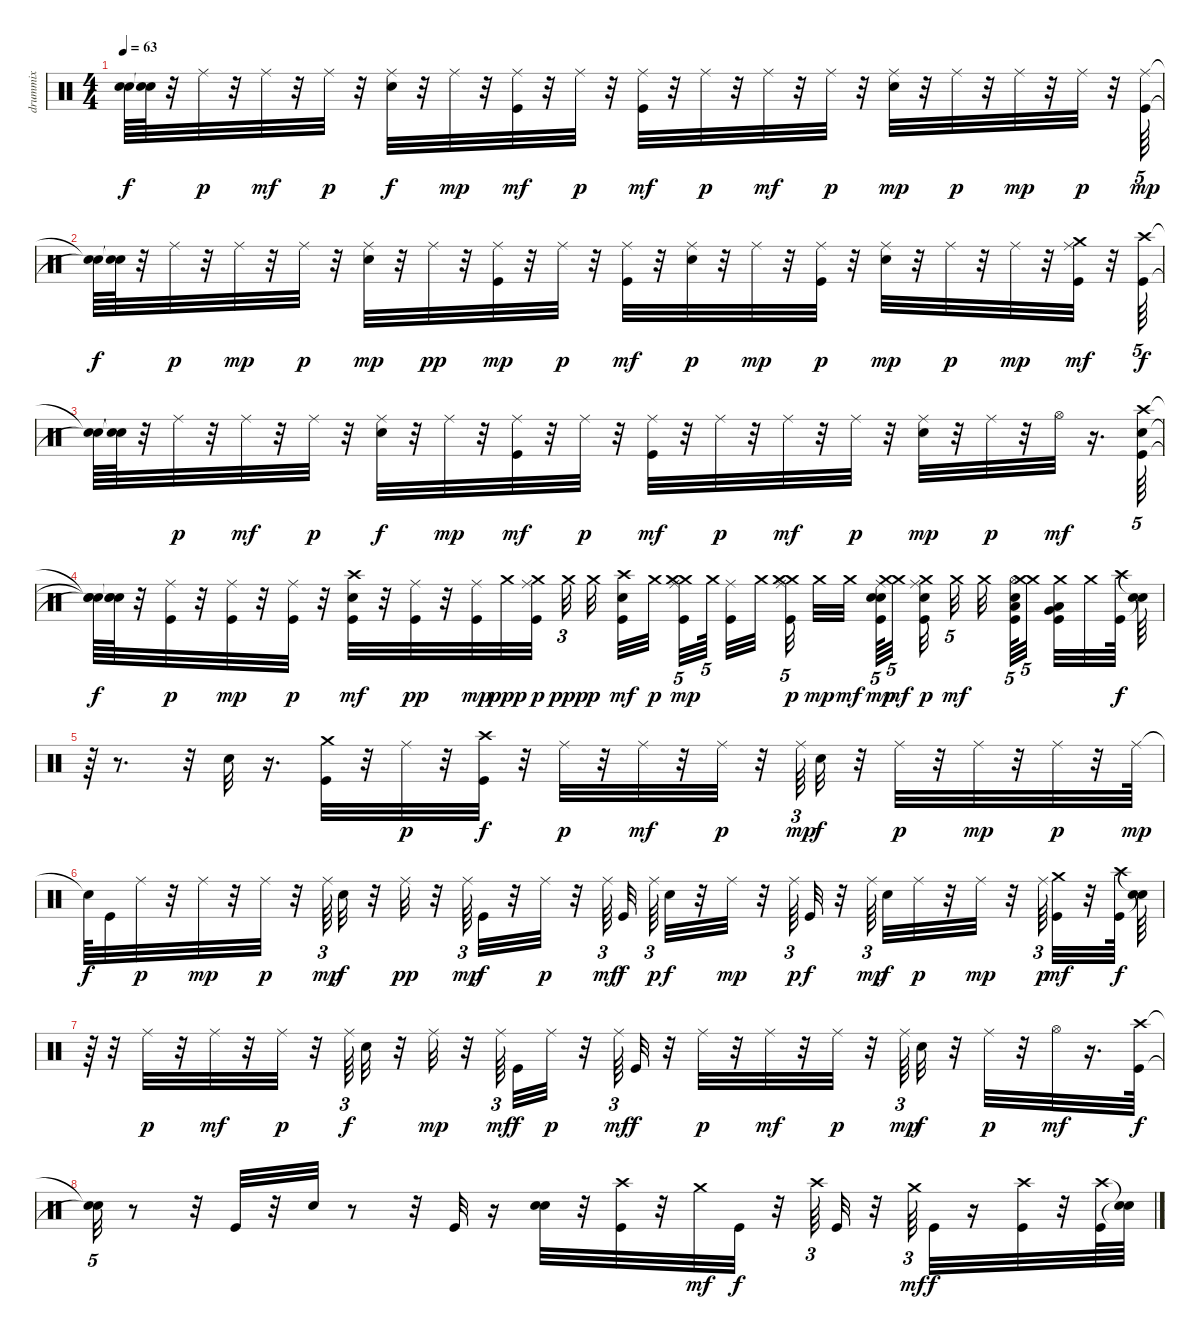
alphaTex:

\track ("drummix" "drummix") {instrument percussion}
\staff {score}
\articulation defaults
\ts (4 4)
\tempo 63
\clef neutral
\ks c
("Snare (hit)"{t} "Snare (hit)"{t}).64{dy f} ("Snare (hit)"{t} "Snare (hit)"{t}).64 r.32 "Ride (middle)".32{dy p} r.32 "Ride (middle)".32{dy mf} r.32 "Ride (middle)".32{dy p} r.32 ("Snare (hit) 2" "Ride (middle)").32{dy f} r.32 "Ride (middle)".32{dy mp} r.32 ("Kick (hit)" "Ride (middle)").32{dy mf} r.32 "Ride (middle)".32{dy p} r.32 ("Kick (hit)" "Ride (middle)").32{dy mf} r.32 "Ride (middle)".32{dy p} r.32 "Ride (middle)".32{dy mf} r.32 "Ride (middle)".32{dy p} r.32 ("Snare (hit) 2" "Ride (middle)").32{dy mp} r.32 "Ride (middle)".32{dy p} r.32 "Ride (middle)".32{dy mp} r.32 "Ride (middle)".32{dy p} r.32 ("Kick (hit)" "Ride (middle)").64{tu (5 4) dy mp} |
("Snare (hit)"{t} "Snare (hit)"{t}).64{dy f} ("Snare (hit)"{t} "Snare (hit)"{t}).64 r.32 "Ride (middle)".32{dy p} r.32 "Ride (middle)".32{dy mp} r.32 "Ride (middle)".32{dy p} r.32 ("Snare (hit) 2" "Ride (middle)").32{dy mp} r.32 "Ride (middle)".32{dy pp} r.32 ("Kick (hit)" "Ride (middle)").32{dy mp} r.32 "Ride (middle)".32{dy p} r.32 ("Kick (hit)" "Ride (middle)").32{dy mf} r.32 ("Snare (hit) 2" "Ride (middle)").32{dy p} r.32 "Ride (middle)".32{dy mp} r.32 ("Kick (hit)" "Ride (middle)").32{dy p} r.32 ("Snare (hit) 2" "Ride (middle)").32{dy mp} r.32 "Ride (middle)".32{dy p} r.32 "Ride (middle)".32{dy mp} r.32 ("Kick (hit)" "Ride (middle)" "Crash medium (hit)").32{dy mf} r.32 ("Kick (hit)" "Crash high (hit)").64{tu (5 4) dy f} |
("Snare (hit)"{t} "Snare (hit)"{t}).64 ("Snare (hit)"{t} "Snare (hit)"{t}).64 r.32 "Ride (middle)".32{dy p} r.32 "Ride (middle)".32{dy mf} r.32 "Ride (middle)".32{dy p} r.32 ("Snare (hit) 2" "Ride (middle)").32{dy f} r.32 "Ride (middle)".32{dy mp} r.32 ("Kick (hit)" "Ride (middle)").32{dy mf} r.32 "Ride (middle)".32{dy p} r.32 ("Kick (hit)" "Ride (middle)").32{dy mf} r.32 "Ride (middle)".32{dy p} r.32 "Ride (middle)".32{dy mf} r.32 "Ride (middle)".32{dy p} r.32 ("Snare (hit) 2" "Ride (middle)").32{dy mp} r.32 "Ride (middle)".32{dy p} r.32 "Hi-Hat (open)".32{dy mf} r.16{d} ("Kick (hit)" "Snare (hit) 2" "Crash high (hit)").64{tu (5 4)} |
("Snare (hit)"{t} "Snare (hit)"{t} "Snare (hit)"{t}).64{dy f} ("Snare (hit)"{t} "Snare (hit)"{t} "Snare (hit)"{t}).64 r.32 ("Kick (hit)" "Ride (middle)").32{dy p} r.32 ("Kick (hit)" "Ride (middle)").32{dy mp} r.32 ("Kick (hit)" "Ride (middle)").32{dy p} r.32 ("Kick (hit)" "Snare (hit) 2" "Crash high (hit)").32{dy mf} r.32 ("Kick (hit)" "Ride (middle)").32{dy pp} r.32 ("Kick (hit)" "Ride (middle)").32{dy mp} "Crash medium (hit)".32{dy ppp} ("Crash medium (hit)" "Kick (hit)" "Ride (middle)").32{dy p beam splitsecondary} "Crash medium (hit)".32{tu (3 2) dy ppp} "Crash medium (hit)".32{dy p} ("Kick (hit)" "Snare (hit) 2" "Crash high (hit)").32{dy mf} "Crash medium (hit)".32{dy p beam splitsecondary} ("Kick (hit)" "Ride (middle)" "Crash medium (hit)" "Crash medium (hit)").32{tu (5 4) dy mp} "Crash medium (hit)".64{tu (5 4) beam splitsecondary} ("Kick (hit)" "Ride (middle)").32 "Crash medium (hit)".32{beam splitsecondary} ("Crash medium (hit)" "Crash medium (hit)" "Kick (hit)" "Ride (middle)").32{tu (5 4) dy p beam splitsecondary} "Crash medium (hit)".32{dy mp} "Crash medium (hit)".32{dy mf} ("Snare (hit) 2" "Kick (hit)" "Snare (hit) 2" "Ride (middle)").64{tu (5 4) dy mp} ("Crash medium (hit)" "Crash medium (hit)").32{tu (5 4) dy mf beam splitsecondary} ("Crash medium (hit)" "Kick (hit)" "Snare (hit) 2" "Ride (middle)").32{dy p beam splitsecondary} "Crash medium (hit)".32{tu (5 4) dy mf beam splitsecondary} "Crash medium (hit)".32{beam splitsecondary} ("Kick (hit)" "Electric Snare (hit)" "Low Floor Tom (hit)" "Hi-Hat (open)").64{tu (5 4)} ("Crash medium (hit)" "Crash medium (hit)").32{tu (5 4) beam splitsecondary} ("Crash medium (hit)" "Kick (hit)" "Low Floor Tom (hit)" "Very Low Tom (hit)").32 "Crash medium (hit)".32 ("Kick (hit)" "Crash high (hit)").64{dy f} ("Snare (hit)"{t} "Snare (hit)"{t}).64 |
r.64 r.8{d} r.32 "Snare (hit) 2".32 r.16{d} ("Kick (hit)" "Crash medium (hit)").32 r.32 "Ride (middle)".32{dy p} r.32 ("Kick (hit)" "Crash high (hit)").32{dy f} r.32 "Ride (middle)".32{dy p} r.32 "Ride (middle)".32{dy mf} r.32 "Ride (middle)".32{dy p} r.32 "Ride (middle)".64{tu (3 2) dy mp} "Snare (hit) 2".32{dy f} r.32 "Ride (middle)".32{dy p} r.32 "Ride (middle)".32{dy mp} r.32 "Ride (middle)".32{dy p} r.32 "Ride (middle)".64{dy mp} |
"Snare (hit)"{t}.64{dy f} "Kick (hit)".32 "Ride (middle)".32{dy p} r.32 "Ride (middle)".32{dy mp} r.32 "Ride (middle)".32{dy p} r.32 "Ride (middle)".64{tu (3 2) dy mp} "Snare (hit) 2".32{dy f} r.32 "Ride (middle)".32{dy pp} r.32 "Ride (middle)".64{tu (3 2) dy mp} "Kick (hit)".32{dy f} r.32 "Ride (middle)".32{dy p} r.32 "Ride (middle)".64{tu (3 2) dy mf beam splitsecondary} "Kick (hit)".32{dy f beam splitsecondary} "Ride (middle)".64{tu (3 2) dy p} "Snare (hit) 2".32{dy f} r.32 "Ride (middle)".32{dy mp} r.32 "Ride (middle)".64{tu (3 2) dy p} "Kick (hit)".32{dy f} r.32 "Ride (middle)".64{tu (3 2) dy mp beam splitsecondary} "Snare (hit) 2".32{dy f} "Ride (middle)".32{dy p} r.32 "Ride (middle)".32{dy mp} r.32 "Ride (middle)".64{tu (3 2) dy p} ("Kick (hit)" "Crash medium (hit)").32{dy mf} r.32 ("Kick (hit)" "Crash high (hit)").64{dy f} ("Snare (hit)"{t} "Snare (hit)"{t}).64 |
r.64 r.32 "Ride (middle)".32{dy p} r.32 "Ride (middle)".32{dy mf} r.32 "Ride (middle)".32{dy p} r.32 "Ride (middle)".64{tu (3 2) dy f} "Snare (hit) 2".32 r.32 "Ride (middle)".32{dy mp} r.32 "Ride (middle)".64{tu (3 2) dy mf beam splitsecondary} "Kick (hit)".32{dy f} "Ride (middle)".32{dy p} r.32 "Ride (middle)".64{tu (3 2) dy mf} "Kick (hit)".32{dy f} r.32 "Ride (middle)".32{dy p} r.32 "Ride (middle)".32{dy mf} r.32 "Ride (middle)".32{dy p} r.32 "Ride (middle)".64{tu (3 2) dy mp} "Snare (hit) 2".32{dy f} r.32 "Ride (middle)".32{dy p} r.32 "Hi-Hat (open)".32{dy mf} r.16{d} ("Kick (hit)" "Crash high (hit)").64{dy f} |
("Snare (hit)"{t} "Snare (hit)"{t}).32{tu (5 4)} r.8 r.32 "Kick (hit)".32 r.32 "Snare (hit) 2".32 r.8 r.32 "Kick (hit)".32 r.16 ("Snare (hit) 2" "Electric Snare (hit)").32 r.32 ("Crash high (hit)" "Kick (hit)").32 r.32 "Crash medium (hit)".32{dy mf} "Kick (hit)".32{dy f} r.32 "Crash high (hit)".64{tu (3 2)} "Kick (hit)".32 r.32 "Crash medium (hit)".64{tu (3 2) dy mf} "Kick (hit)".32{dy f} r.16 ("Crash high (hit)" "Kick (hit)").32 r.32 ("Kick (hit)" "Crash high (hit)").64 ("Snare (hit)"{t} "Snare (hit)"{t}).64
